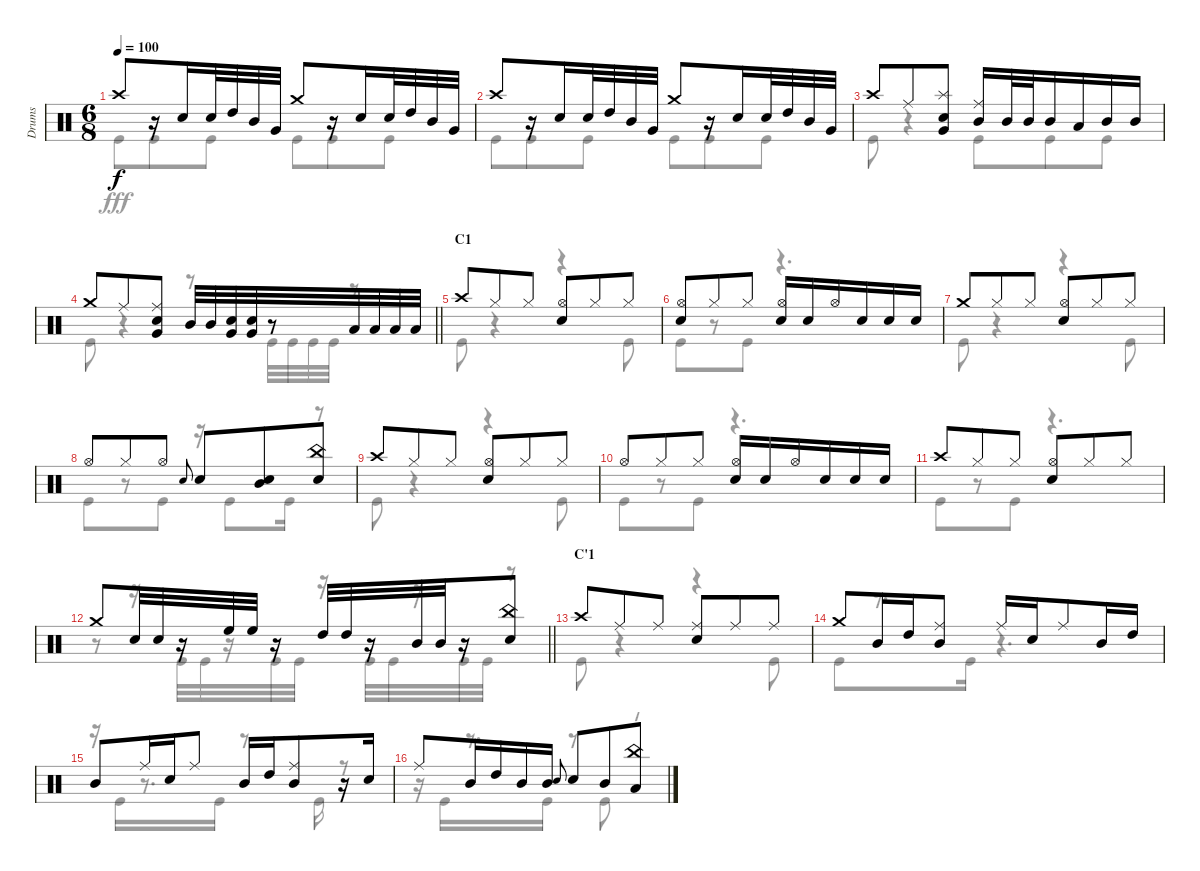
\track ("Drums" "Drums") {instrument percussion}
\staff {score}
\articulation defaults
\voice
\ts (6 8)
\tempo 100
\clef neutral
\ks c "Crash high (hit)".8{dy f}
r.16 "Snare (hit) 2".16 "Snare (hit) 2".32 "High Tom (hit)".32 "Mid Tom (hit)".32 "Very Low Tom (hit)".32 "Crash medium (hit)".8 r.16 "Snare (hit) 2".16 "Snare (hit) 2".32 "High Tom (hit)".32 "Mid Tom (hit)".32 "Very Low Tom (hit)".32 |
"Crash high (hit)".8 r.16 "Snare (hit) 2".16 "Snare (hit) 2".32 "High Tom (hit)".32 "Mid Tom (hit)".32 "Very Low Tom (hit)".32 "Crash medium (hit)".8 r.16 "Snare (hit) 2".16 "Snare (hit) 2".32 "High Tom (hit)".32 "Mid Tom (hit)".32 "Very Low Tom (hit)".32 |
"Crash high (hit)".8 "Ride (middle)".8 ("Splash (hit)" "Snare (hit) 2" "Very Low Tom (hit)").8 ("Ride (middle)" "Mid Tom (hit)").16 "Mid Tom (hit)".32 "Mid Tom (hit)".32 "Mid Tom (hit)".16 "Low Tom (hit)".16 "Mid Tom (hit)".16 "Mid Tom (hit)".16 |
\barLineRight lightlight "Crash medium (hit)".8 "Ride (middle)".8
("Ride (middle)" "Snare (hit) 2" "Very Low Tom (hit)").8 "Mid Tom (hit)".32 "Mid Tom (hit)".32 ("Snare (hit) 2" "Very Low Tom (hit)").32 ("Snare (hit) 2" "Very Low Tom (hit)").32 r.8 "Low Tom (hit)".32 "Low Tom (hit)".32 "Low Tom (hit)".32 "Low Tom (hit)".32 |
\section ("" "C1")
"Crash high (hit)".8 "Hi-Hat (closed)".8 "Hi-Hat (closed)".8 ("Hi-Hat (open)" "Snare (hit) 2").8 "Hi-Hat (closed)".8 "Hi-Hat (closed)".8 |
("Hi-Hat (open)" "Snare (hit) 2").8 "Hi-Hat (closed)".8 "Hi-Hat (closed)".8 ("Hi-Hat (open)" "Snare (hit) 2").16 "Snare (hit) 2".16 "Hi-Hat (open)".16 "Snare (hit) 2".16 "Snare (hit) 2".16 "Snare (hit) 2".16 |
"Crash medium (hit)".8 "Hi-Hat (closed)".8 "Hi-Hat (closed)".8 ("Hi-Hat (open)" "Snare (hit) 2").8 "Hi-Hat (closed)".8 "Hi-Hat (closed)".8 |
"Hi-Hat (open)".8 "Hi-Hat (closed)".8 "Hi-Hat (open)".8 "Snare (hit) 2".8{gr onbeat} "Snare (hit) 2".8 ("Mid Tom (hit)" "Snare (hit) 2").8 ("China (hit)" "Snare (hit) 2").8 |
"Crash high (hit)".8 "Hi-Hat (closed)".8 "Hi-Hat (closed)".8 ("Hi-Hat (open)" "Snare (hit) 2").8 "Hi-Hat (closed)".8 "Hi-Hat (closed)".8 |
"Hi-Hat (open)".8 "Hi-Hat (closed)".8 "Hi-Hat (closed)".8 ("Hi-Hat (open)" "Snare (hit) 2").16 "Snare (hit) 2".16 "Hi-Hat (open)".16 "Snare (hit) 2".16 "Snare (hit) 2".16 "Snare (hit) 2".16 |
"Crash high (hit)".8 "Hi-Hat (closed)".8 "Hi-Hat (closed)".8 ("Hi-Hat (open)" "Snare (hit) 2").8 "Hi-Hat (closed)".8 "Hi-Hat (closed)".8 |
\barLineRight lightlight "Crash medium (hit)".8 "Snare (hit) 2".32 "Snare (hit) 2".32
r.16 "High Floor Tom (hit)".32 "High Floor Tom (hit)".32 r.16 "High Tom (hit)".32 "High Tom (hit)".32 r.16 "Mid Tom (hit)".32 "Mid Tom (hit)".32 r.16 ("China (hit)" "Snare (hit) 2").8 |
\section ("" "C'1")
"Crash high (hit)".8 "Ride (middle)".8 "Ride (middle)".8 ("Ride (middle)" "Snare (hit) 2").8 "Ride (middle)".8 "Ride (middle)".8 |
"Crash medium (hit)".8 "Mid Tom (hit)".16 "High Tom (hit)".16 ("Ride (middle)" "Mid Tom (hit)").8 "Ride (middle)".16 "Snare (hit) 2".16 "Ride (middle)".8 "Mid Tom (hit)".16 "High Tom (hit)".16 |
"Mid Tom (hit)".8 "Ride (middle)".16 "Snare (hit) 2".16 "Ride (middle)".8 "Mid Tom (hit)".16 "High Tom (hit)".16 ("Ride (middle)" "Mid Tom (hit)").8 r.16 "Snare (hit) 2".16 |
"Ride (middle)".8 "Mid Tom (hit)".16 "High Tom (hit)".16 "Mid Tom (hit)".16 "Mid Tom (hit)".16 "Snare (hit) 2".8{gr onbeat} "Snare (hit) 2".8 "Mid Tom (hit)".8 ("China (hit)" "Low Tom (hit)").8
\voice
\clef neutral
\ottava regular
\simile none
\ks c "Kick (hit)".8{dy fff} "Kick (hit)".8 "Kick (hit)".8 "Kick (hit)".8 "Kick (hit)".8 "Kick (hit)".8
|
"Kick (hit)".8 "Kick (hit)".8 "Kick (hit)".8 "Kick (hit)".8 "Kick (hit)".8 "Kick (hit)".8 |
"Kick (hit)".8 r.4 "Kick (hit)".8 "Kick (hit)".8 "Kick (hit)".8 |
\barLineRight lightlight "Kick (hit)".8
r.4 r.8 "Kick (hit)".32 "Kick (hit)".32 "Kick (hit)".32 "Kick (hit)".32 r.8 |
"Kick (hit)".8 r.4 r.4 "Kick (hit)".8 |
"Kick (hit)".8 r.8 "Kick (hit)".8 r.4{d} |
"Kick (hit)".8 r.4 r.4 "Kick (hit)".8 |
"Kick (hit)".8 r.8 "Kick (hit)".8 r.16 "Kick (hit)".8 "Kick (hit)".16 r.8 |
"Kick (hit)".8 r.4 r.4 "Kick (hit)".8 |
"Kick (hit)".8 r.8 "Kick (hit)".8 r.4{d} |
"Kick (hit)".8 r.8 "Kick (hit)".8 r.4{d} |
\barLineRight lightlight
r.8 r.16 "Kick (hit)".32 "Kick (hit)".32 r.16 "Kick (hit)".32 "Kick (hit)".32 r.16 "Kick (hit)".32 "Kick (hit)".32 r.16 "Kick (hit)".32 "Kick (hit)".32 r.8 |
"Kick (hit)".8 r.4 r.4 "Kick (hit)".8 |
"Kick (hit)".8 r.8{d} "Kick (hit)".16 r.4{d} |
r.16 "Kick (hit)".16 r.8{d} "Kick (hit)".16 r.8{d} "Kick (hit)".16 r.8 |
r.16 "Kick (hit)".16 r.8{d} "Kick (hit)".16 r.8 "Kick (hit)".8 r.8
